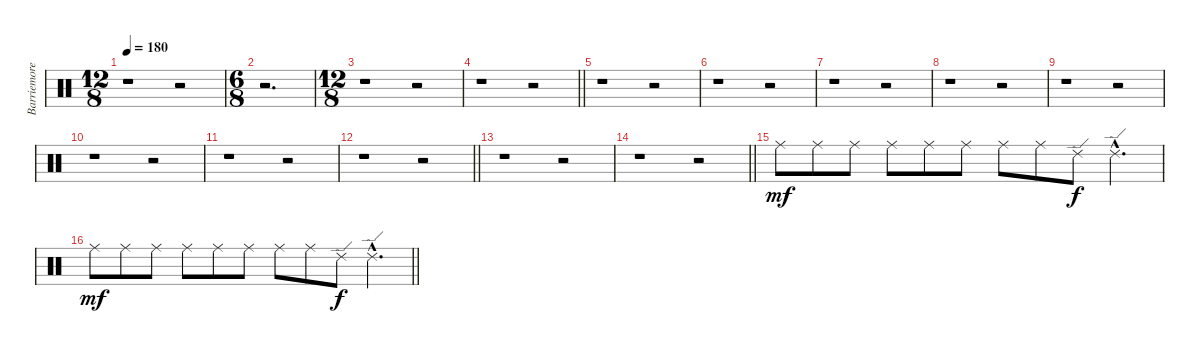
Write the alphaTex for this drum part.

\track ("Barriemore Barlow (drums)" "Barriemore") {instrument percussion}
\staff {score}
\articulation defaults
\ts (12 8)
\tempo 180
\clef neutral
\ks c
r.1{dy mf} r.2 |
\ts (6 8)
r.2{d} |
\ts (12 8)
r.1 r.2 |
\barLineRight lightlight
r.1 r.2 |
r.1 r.2 |
r.1 r.2 |
r.1 r.2 |
r.1 r.2 |
r.1 r.2 |
r.1 r.2 |
r.1 r.2 |
\barLineRight lightlight
r.1 r.2 |
r.1 r.2 |
\barLineRight lightlight
r.1 r.2 |
"Ride (middle)".8 "Ride (middle)".8 "Ride (middle)".8 "Ride (middle)".8 "Ride (middle)".8 "Ride (middle)".8 "Ride (middle)".8 "Ride (middle)".8 "Ride (edge) 2".8{dy f} "Ride (edge) 2"{hac}.4{d} |
\barLineRight lightlight "Ride (middle)".8{dy mf} "Ride (middle)".8 "Ride (middle)".8 "Ride (middle)".8 "Ride (middle)".8 "Ride (middle)".8 "Ride (middle)".8 "Ride (middle)".8 "Ride (edge) 2".8{dy f} "Ride (edge) 2"{hac}.4{d}
